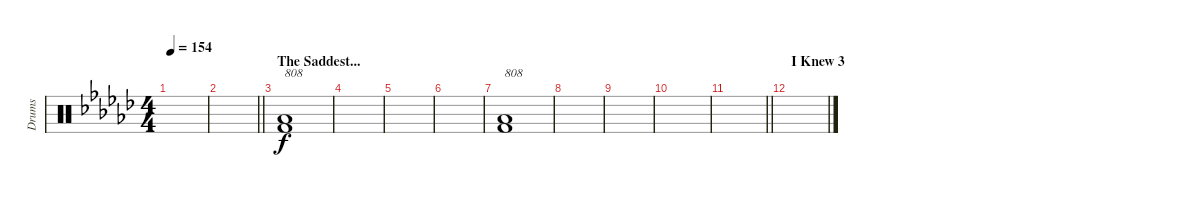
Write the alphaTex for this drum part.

\track ("Drums" "Drums") {instrument percussion}
\staff {score}
\articulation defaults
\ts (4 4)
\tempo 154
\clef neutral
\ks gb
|
\barLineRight lightlight
|
\section ("" "The Saddest...")
("Low Floor Tom (hit)" "Kick (hit) 2").1{txt "808"} |
|
|
|
("Low Floor Tom (hit)" "Kick (hit) 2").1{txt "808"} |
|
|
|
\barLineRight lightlight
|
\section ("" "I Knew 3")
